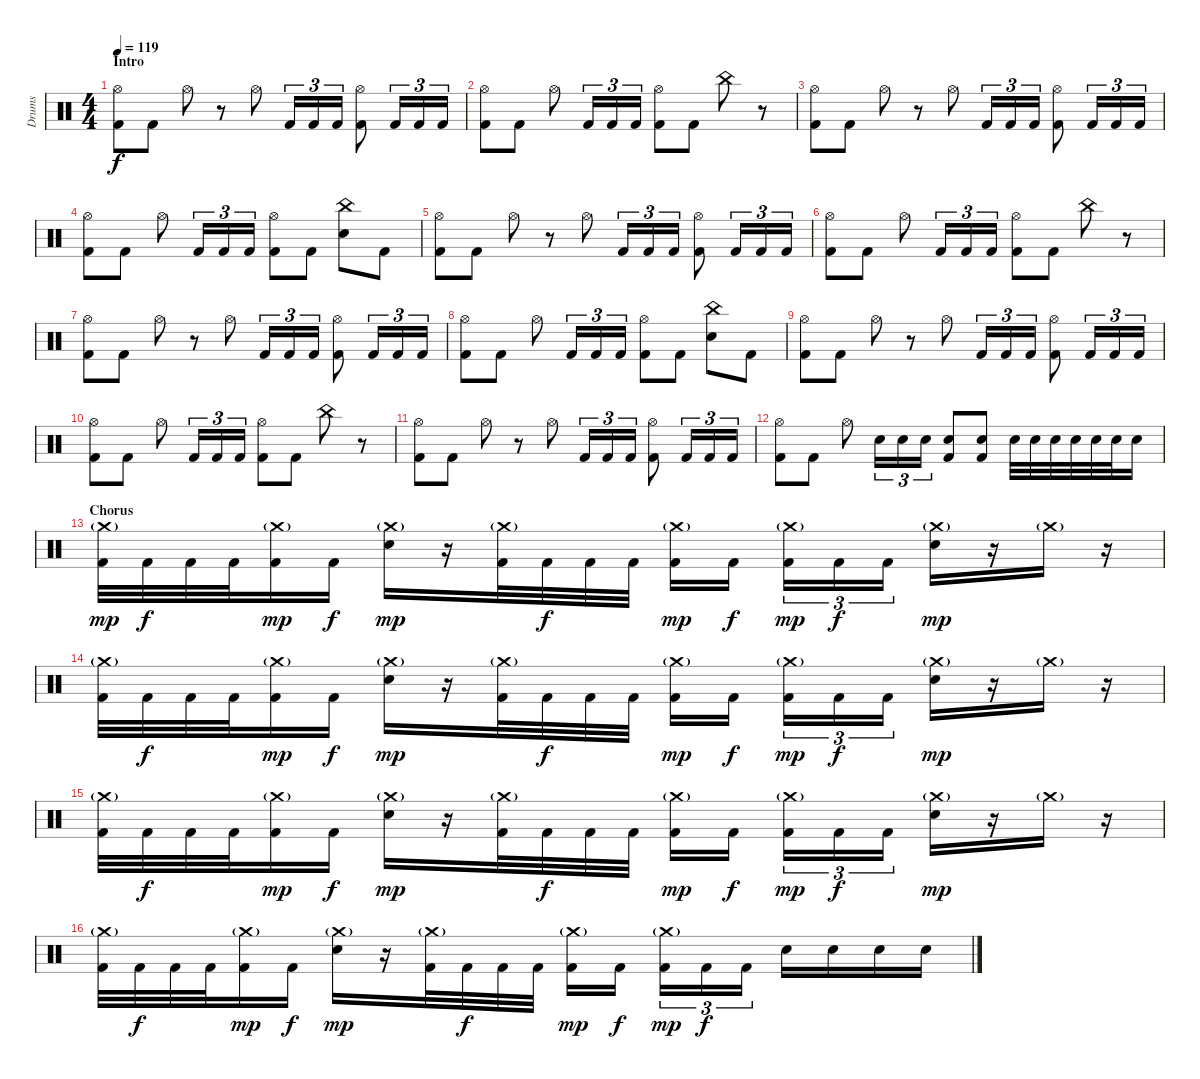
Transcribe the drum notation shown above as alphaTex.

\track ("Drums" "Drums") {instrument percussion}
\staff {score}
\articulation defaults
\ts (4 4)
\section ("" "Intro")
\tempo 119
\clef neutral
\ks c
("Hi-Hat (open)" "Kick (hit) 2").8{dy f} "Kick (hit) 2".8 "Hi-Hat (open)".8 r.8 "Hi-Hat (open)".8 "Kick (hit) 2".16{tu (3 2)} "Kick (hit) 2".16{tu (3 2)} "Kick (hit) 2".16{tu (3 2)} ("Hi-Hat (open)" "Kick (hit) 2").8 "Kick (hit) 2".16{tu (3 2)} "Kick (hit) 2".16{tu (3 2)} "Kick (hit) 2".16{tu (3 2)} |
("Hi-Hat (open)" "Kick (hit) 2").8 "Kick (hit) 2".8 "Hi-Hat (open)".8 "Kick (hit) 2".16{tu (3 2)} "Kick (hit) 2".16{tu (3 2)} "Kick (hit) 2".16{tu (3 2)} ("Hi-Hat (open)" "Kick (hit) 2").8 "Kick (hit) 2".8 "China (hit)".8 r.8 |
("Hi-Hat (open)" "Kick (hit) 2").8 "Kick (hit) 2".8 "Hi-Hat (open)".8 r.8 "Hi-Hat (open)".8 "Kick (hit) 2".16{tu (3 2)} "Kick (hit) 2".16{tu (3 2)} "Kick (hit) 2".16{tu (3 2)} ("Hi-Hat (open)" "Kick (hit) 2").8 "Kick (hit) 2".16{tu (3 2)} "Kick (hit) 2".16{tu (3 2)} "Kick (hit) 2".16{tu (3 2)} |
("Hi-Hat (open)" "Kick (hit) 2").8 "Kick (hit) 2".8 "Hi-Hat (open)".8 "Kick (hit) 2".16{tu (3 2)} "Kick (hit) 2".16{tu (3 2)} "Kick (hit) 2".16{tu (3 2)} ("Hi-Hat (open)" "Kick (hit) 2").8 "Kick (hit) 2".8 ("China (hit)" "Electric Snare (hit)").8 "Kick (hit) 2".8 |
("Hi-Hat (open)" "Kick (hit) 2").8 "Kick (hit) 2".8 "Hi-Hat (open)".8 r.8 "Hi-Hat (open)".8 "Kick (hit) 2".16{tu (3 2)} "Kick (hit) 2".16{tu (3 2)} "Kick (hit) 2".16{tu (3 2)} ("Hi-Hat (open)" "Kick (hit) 2").8 "Kick (hit) 2".16{tu (3 2)} "Kick (hit) 2".16{tu (3 2)} "Kick (hit) 2".16{tu (3 2)} |
("Hi-Hat (open)" "Kick (hit) 2").8 "Kick (hit) 2".8 "Hi-Hat (open)".8 "Kick (hit) 2".16{tu (3 2)} "Kick (hit) 2".16{tu (3 2)} "Kick (hit) 2".16{tu (3 2)} ("Hi-Hat (open)" "Kick (hit) 2").8 "Kick (hit) 2".8 "China (hit)".8 r.8 |
("Hi-Hat (open)" "Kick (hit) 2").8 "Kick (hit) 2".8 "Hi-Hat (open)".8 r.8 "Hi-Hat (open)".8 "Kick (hit) 2".16{tu (3 2)} "Kick (hit) 2".16{tu (3 2)} "Kick (hit) 2".16{tu (3 2)} ("Hi-Hat (open)" "Kick (hit) 2").8 "Kick (hit) 2".16{tu (3 2)} "Kick (hit) 2".16{tu (3 2)} "Kick (hit) 2".16{tu (3 2)} |
("Hi-Hat (open)" "Kick (hit) 2").8 "Kick (hit) 2".8 "Hi-Hat (open)".8 "Kick (hit) 2".16{tu (3 2)} "Kick (hit) 2".16{tu (3 2)} "Kick (hit) 2".16{tu (3 2)} ("Hi-Hat (open)" "Kick (hit) 2").8 "Kick (hit) 2".8 ("China (hit)" "Electric Snare (hit)").8 "Kick (hit) 2".8 |
("Hi-Hat (open)" "Kick (hit) 2").8 "Kick (hit) 2".8 "Hi-Hat (open)".8 r.8 "Hi-Hat (open)".8 "Kick (hit) 2".16{tu (3 2)} "Kick (hit) 2".16{tu (3 2)} "Kick (hit) 2".16{tu (3 2)} ("Hi-Hat (open)" "Kick (hit) 2").8 "Kick (hit) 2".16{tu (3 2)} "Kick (hit) 2".16{tu (3 2)} "Kick (hit) 2".16{tu (3 2)} |
("Hi-Hat (open)" "Kick (hit) 2").8 "Kick (hit) 2".8 "Hi-Hat (open)".8 "Kick (hit) 2".16{tu (3 2)} "Kick (hit) 2".16{tu (3 2)} "Kick (hit) 2".16{tu (3 2)} ("Hi-Hat (open)" "Kick (hit) 2").8 "Kick (hit) 2".8 "China (hit)".8 r.8 |
("Hi-Hat (open)" "Kick (hit) 2").8 "Kick (hit) 2".8 "Hi-Hat (open)".8 r.8 "Hi-Hat (open)".8 "Kick (hit) 2".16{tu (3 2)} "Kick (hit) 2".16{tu (3 2)} "Kick (hit) 2".16{tu (3 2)} ("Hi-Hat (open)" "Kick (hit) 2").8 "Kick (hit) 2".16{tu (3 2)} "Kick (hit) 2".16{tu (3 2)} "Kick (hit) 2".16{tu (3 2)} |
("Hi-Hat (open)" "Kick (hit) 2").8 "Kick (hit) 2".8 "Hi-Hat (open)".8 "Electric Snare (hit)".16{tu (3 2)} "Electric Snare (hit)".16{tu (3 2)} "Electric Snare (hit)".16{tu (3 2)} ("Electric Snare (hit)" "Kick (hit) 2").8 ("Electric Snare (hit)" "Kick (hit) 2").8 "Electric Snare (hit)".32 "Electric Snare (hit)".32 "Electric Snare (hit)".32 "Electric Snare (hit)".32 "Electric Snare (hit)".32 "Electric Snare (hit)".32 "Electric Snare (hit)".16 |
\section ("" "Chorus")
("Crash medium (hit)"{g} "Kick (hit) 2").32{dy mp} "Kick (hit) 2".32{dy f} "Kick (hit) 2".32 "Kick (hit) 2".32 ("Crash medium (hit)"{g} "Kick (hit) 2").16{dy mp} "Kick (hit) 2".16{dy f} ("Crash medium (hit)"{g} "Electric Snare (hit)").16{dy mp} r.16 ("Crash medium (hit)"{g} "Kick (hit) 2").32 "Kick (hit) 2".32{dy f} "Kick (hit) 2".32 "Kick (hit) 2".32 ("Crash medium (hit)"{g} "Kick (hit) 2").16{dy mp} "Kick (hit) 2".16{dy f} ("Crash medium (hit)"{g} "Kick (hit) 2").16{tu (3 2) dy mp} "Kick (hit) 2".16{tu (3 2) dy f} "Kick (hit) 2".16{tu (3 2)} ("Crash medium (hit)"{g} "Electric Snare (hit)").16{dy mp} r.16 "Crash medium (hit)"{g}.16 r.16 |
("Crash medium (hit)"{g} "Kick (hit) 2").32 "Kick (hit) 2".32{dy f} "Kick (hit) 2".32 "Kick (hit) 2".32 ("Crash medium (hit)"{g} "Kick (hit) 2").16{dy mp} "Kick (hit) 2".16{dy f} ("Crash medium (hit)"{g} "Electric Snare (hit)").16{dy mp} r.16 ("Crash medium (hit)"{g} "Kick (hit) 2").32 "Kick (hit) 2".32{dy f} "Kick (hit) 2".32 "Kick (hit) 2".32 ("Crash medium (hit)"{g} "Kick (hit) 2").16{dy mp} "Kick (hit) 2".16{dy f} ("Crash medium (hit)"{g} "Kick (hit) 2").16{tu (3 2) dy mp} "Kick (hit) 2".16{tu (3 2) dy f} "Kick (hit) 2".16{tu (3 2)} ("Crash medium (hit)"{g} "Electric Snare (hit)").16{dy mp} r.16 "Crash medium (hit)"{g}.16 r.16 |
("Crash medium (hit)"{g} "Kick (hit) 2").32 "Kick (hit) 2".32{dy f} "Kick (hit) 2".32 "Kick (hit) 2".32 ("Crash medium (hit)"{g} "Kick (hit) 2").16{dy mp} "Kick (hit) 2".16{dy f} ("Crash medium (hit)"{g} "Electric Snare (hit)").16{dy mp} r.16 ("Crash medium (hit)"{g} "Kick (hit) 2").32 "Kick (hit) 2".32{dy f} "Kick (hit) 2".32 "Kick (hit) 2".32 ("Crash medium (hit)"{g} "Kick (hit) 2").16{dy mp} "Kick (hit) 2".16{dy f} ("Crash medium (hit)"{g} "Kick (hit) 2").16{tu (3 2) dy mp} "Kick (hit) 2".16{tu (3 2) dy f} "Kick (hit) 2".16{tu (3 2)} ("Crash medium (hit)"{g} "Electric Snare (hit)").16{dy mp} r.16 "Crash medium (hit)"{g}.16 r.16 |
("Crash medium (hit)"{g} "Kick (hit) 2").32 "Kick (hit) 2".32{dy f} "Kick (hit) 2".32 "Kick (hit) 2".32 ("Crash medium (hit)"{g} "Kick (hit) 2").16{dy mp} "Kick (hit) 2".16{dy f} ("Crash medium (hit)"{g} "Electric Snare (hit)").16{dy mp} r.16 ("Crash medium (hit)"{g} "Kick (hit) 2").32 "Kick (hit) 2".32{dy f} "Kick (hit) 2".32 "Kick (hit) 2".32 ("Crash medium (hit)"{g} "Kick (hit) 2").16{dy mp} "Kick (hit) 2".16{dy f} ("Crash medium (hit)"{g} "Kick (hit) 2").16{tu (3 2) dy mp} "Kick (hit) 2".16{tu (3 2) dy f} "Kick (hit) 2".16{tu (3 2)} "Electric Snare (hit)".16 "Electric Snare (hit)".16 "Electric Snare (hit)".16 "Electric Snare (hit)".16
